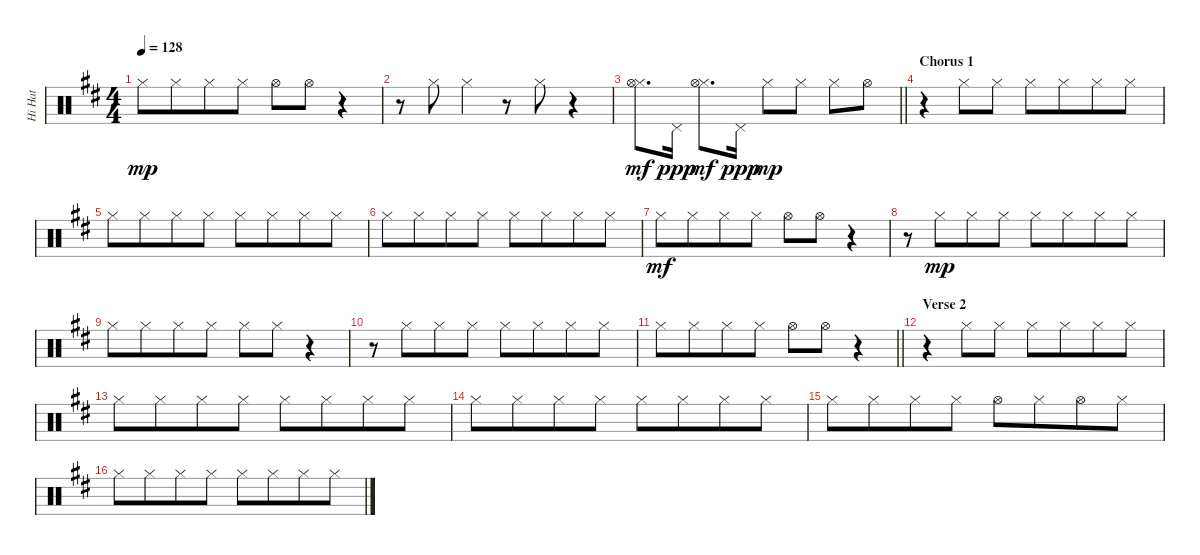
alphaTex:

\track ("Hi Hat" "Hi Hat") {instrument percussion}
\staff {score}
\articulation defaults
\ts (4 4)
\tempo 128
\clef neutral
\ks bminor "Hi-Hat (closed)".8{dy mp} "Hi-Hat (closed)".8{beam merge} "Hi-Hat (closed)".8 "Hi-Hat (closed)".8 "Hi-Hat (open)".8 "Hi-Hat (open)".8
r.4 |
r.8 "Hi-Hat (closed)".8 "Hi-Hat (closed)".4 r.8 "Hi-Hat (closed)".8 r.4 |
\barLineRight lightlight
("Hi-Hat (closed)" "Hi-Hat (open)").8{d dy mf} "Pedal Hi-Hat (hit)".16{dy ppp} ("Hi-Hat (closed)" "Hi-Hat (open)").8{d dy mf} "Pedal Hi-Hat (hit)".16{dy ppp} "Hi-Hat (closed)".8{dy mp} "Hi-Hat (closed)".8 "Hi-Hat (closed)".8 "Hi-Hat (open)".8 |
\section ("" "Chorus 1")
r.4 "Hi-Hat (closed)".8 "Hi-Hat (closed)".8 "Hi-Hat (closed)".8 "Hi-Hat (closed)".8{beam merge} "Hi-Hat (closed)".8 "Hi-Hat (closed)".8 |
"Hi-Hat (closed)".8 "Hi-Hat (closed)".8{beam merge} "Hi-Hat (closed)".8 "Hi-Hat (closed)".8 "Hi-Hat (closed)".8 "Hi-Hat (closed)".8{beam merge} "Hi-Hat (closed)".8 "Hi-Hat (closed)".8 |
"Hi-Hat (closed)".8 "Hi-Hat (closed)".8{beam merge} "Hi-Hat (closed)".8 "Hi-Hat (closed)".8 "Hi-Hat (closed)".8 "Hi-Hat (closed)".8{beam merge} "Hi-Hat (closed)".8 "Hi-Hat (closed)".8 |
"Hi-Hat (closed)".8{dy mf} "Hi-Hat (closed)".8{beam merge} "Hi-Hat (closed)".8 "Hi-Hat (closed)".8 "Hi-Hat (open)".8 "Hi-Hat (open)".8 r.4 |
r.8 "Hi-Hat (closed)".8{dy mp beam merge} "Hi-Hat (closed)".8 "Hi-Hat (closed)".8 "Hi-Hat (closed)".8 "Hi-Hat (closed)".8{beam merge} "Hi-Hat (closed)".8 "Hi-Hat (closed)".8 |
"Hi-Hat (closed)".8 "Hi-Hat (closed)".8{beam merge} "Hi-Hat (closed)".8 "Hi-Hat (closed)".8 "Hi-Hat (closed)".8 "Hi-Hat (closed)".8 r.4 |
r.8 "Hi-Hat (closed)".8{beam merge} "Hi-Hat (closed)".8 "Hi-Hat (closed)".8 "Hi-Hat (closed)".8 "Hi-Hat (closed)".8{beam merge} "Hi-Hat (closed)".8 "Hi-Hat (closed)".8 |
\barLineRight lightlight "Hi-Hat (closed)".8 "Hi-Hat (closed)".8{beam merge} "Hi-Hat (closed)".8 "Hi-Hat (closed)".8 "Hi-Hat (open)".8 "Hi-Hat (open)".8
r.4 |
\section ("" "Verse 2")
r.4 "Hi-Hat (closed)".8 "Hi-Hat (closed)".8 "Hi-Hat (closed)".8 "Hi-Hat (closed)".8{beam merge} "Hi-Hat (closed)".8 "Hi-Hat (closed)".8 |
"Hi-Hat (closed)".8 "Hi-Hat (closed)".8{beam merge} "Hi-Hat (closed)".8 "Hi-Hat (closed)".8 "Hi-Hat (closed)".8 "Hi-Hat (closed)".8{beam merge} "Hi-Hat (closed)".8 "Hi-Hat (closed)".8 |
"Hi-Hat (closed)".8 "Hi-Hat (closed)".8{beam merge} "Hi-Hat (closed)".8 "Hi-Hat (closed)".8 "Hi-Hat (closed)".8 "Hi-Hat (closed)".8{beam merge} "Hi-Hat (closed)".8 "Hi-Hat (closed)".8 |
"Hi-Hat (closed)".8 "Hi-Hat (closed)".8{beam merge} "Hi-Hat (closed)".8 "Hi-Hat (closed)".8 "Hi-Hat (open)".8 "Hi-Hat (closed)".8{beam merge} "Hi-Hat (open)".8 "Hi-Hat (closed)".8 |
"Hi-Hat (closed)".8 "Hi-Hat (closed)".8{beam merge} "Hi-Hat (closed)".8 "Hi-Hat (closed)".8 "Hi-Hat (closed)".8 "Hi-Hat (closed)".8{beam merge} "Hi-Hat (closed)".8 "Hi-Hat (closed)".8
